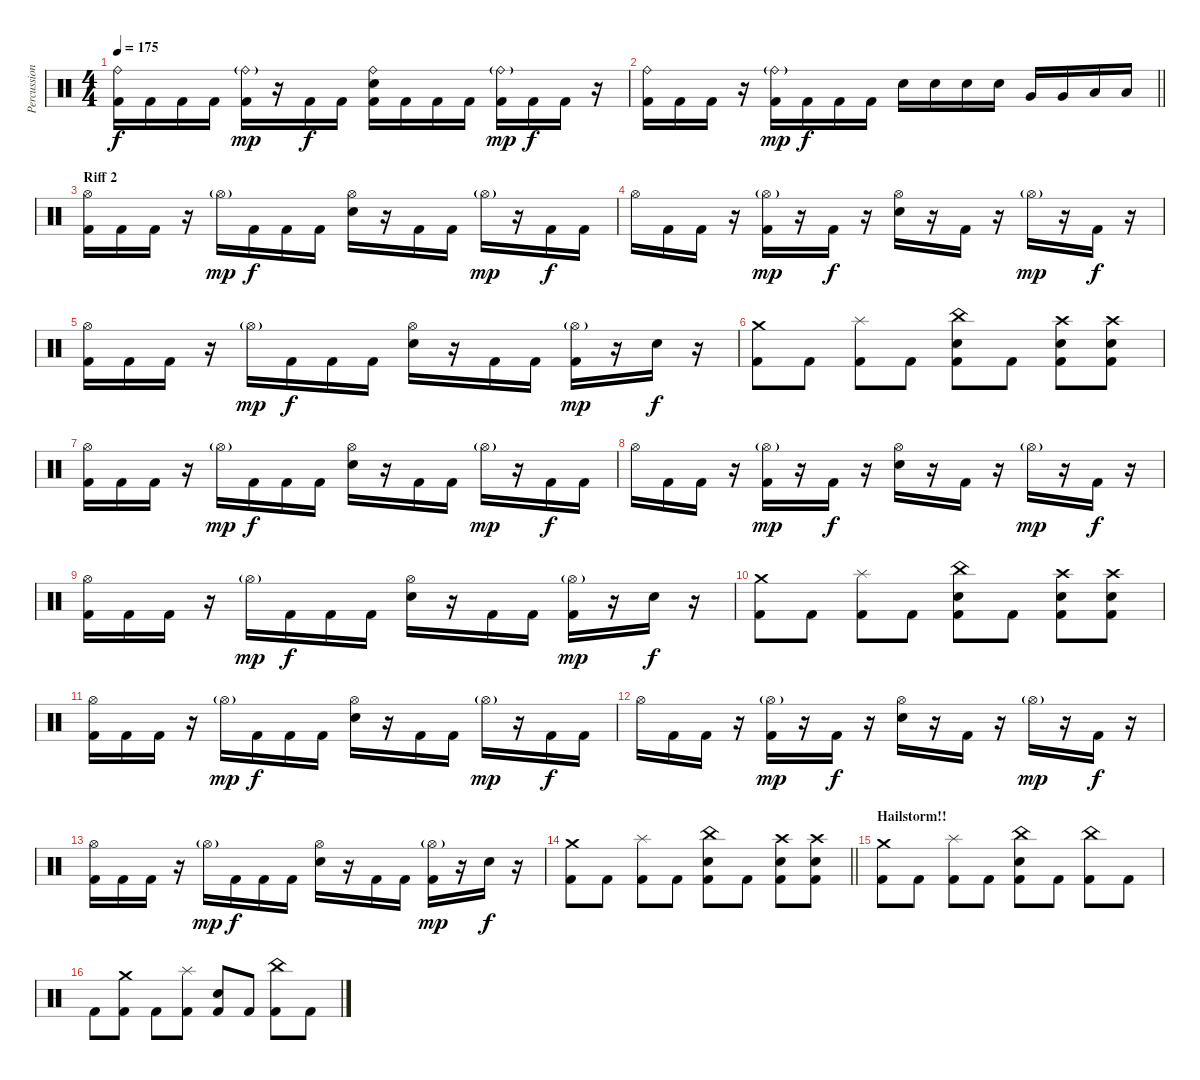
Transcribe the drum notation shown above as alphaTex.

\track ("Percussion" "Percussion") {instrument percussion}
\staff {score}
\articulation defaults
\ts (4 4)
\tempo 175
\clef neutral
\ks c
("Ride (bell)" "Kick (hit) 2").16{dy f} "Kick (hit) 2".16 "Kick (hit) 2".16 "Kick (hit) 2".16 ("Ride (bell)"{g} "Kick (hit) 2").16{dy mp} r.16 "Kick (hit) 2".16{dy f} "Kick (hit) 2".16 ("Ride (bell)" "Electric Snare (hit)" "Kick (hit) 2").16 "Kick (hit) 2".16 "Kick (hit) 2".16 "Kick (hit) 2".16 ("Ride (bell)"{g} "Kick (hit) 2").16{dy mp} "Kick (hit) 2".16{dy f} "Kick (hit) 2".16 r.16 |
\barLineRight lightlight
("Ride (bell)" "Kick (hit) 2").16 "Kick (hit) 2".16 "Kick (hit) 2".16 r.16 ("Ride (bell)"{g} "Kick (hit) 2").16{dy mp} "Kick (hit) 2".16{dy f} "Kick (hit) 2".16 "Kick (hit) 2".16 "Electric Snare (hit)".16 "Electric Snare (hit)".16 "Electric Snare (hit)".16 "Electric Snare (hit)".16 "Very Low Tom (hit)".16 "Very Low Tom (hit)".16 "Low Floor Tom (hit)".16 "Low Floor Tom (hit)".16 |
\section ("" "Riff 2")
("Hi-Hat (open)" "Kick (hit) 2").16 "Kick (hit) 2".16 "Kick (hit) 2".16 r.16 "Hi-Hat (open)"{g}.16{dy mp} "Kick (hit) 2".16{dy f} "Kick (hit) 2".16 "Kick (hit) 2".16 ("Hi-Hat (open)" "Electric Snare (hit)").16 r.16 "Kick (hit) 2".16 "Kick (hit) 2".16 "Hi-Hat (open)"{g}.16{dy mp} r.16 "Kick (hit) 2".16{dy f} "Kick (hit) 2".16 |
"Hi-Hat (open)".16 "Kick (hit) 2".16 "Kick (hit) 2".16 r.16 ("Hi-Hat (open)"{g} "Kick (hit) 2").16{dy mp} r.16 "Kick (hit) 2".16{dy f} r.16 ("Hi-Hat (open)" "Electric Snare (hit)").16 r.16 "Kick (hit) 2".16 r.16 "Hi-Hat (open)"{g}.16{dy mp} r.16 "Kick (hit) 2".16{dy f} r.16 |
("Hi-Hat (open)" "Kick (hit) 2").16 "Kick (hit) 2".16 "Kick (hit) 2".16 r.16 "Hi-Hat (open)"{g}.16{dy mp} "Kick (hit) 2".16{dy f} "Kick (hit) 2".16 "Kick (hit) 2".16 ("Hi-Hat (open)" "Electric Snare (hit)").16 r.16 "Kick (hit) 2".16 "Kick (hit) 2".16 ("Hi-Hat (open)"{g} "Kick (hit) 2").16{dy mp} r.16 "Electric Snare (hit)".16{dy f} r.16 |
("Crash medium (hit)" "Kick (hit) 2").8 "Kick (hit) 2".8 ("Splash (hit)" "Kick (hit) 2").8 "Kick (hit) 2".8 ("China (hit)" "Electric Snare (hit)" "Kick (hit) 2").8 "Kick (hit) 2".8 ("Crash high (hit)" "Electric Snare (hit)" "Kick (hit) 2").8 ("Crash high (hit)" "Electric Snare (hit)" "Kick (hit) 2").8 |
("Hi-Hat (open)" "Kick (hit) 2").16 "Kick (hit) 2".16 "Kick (hit) 2".16 r.16 "Hi-Hat (open)"{g}.16{dy mp} "Kick (hit) 2".16{dy f} "Kick (hit) 2".16 "Kick (hit) 2".16 ("Hi-Hat (open)" "Electric Snare (hit)").16 r.16 "Kick (hit) 2".16 "Kick (hit) 2".16 "Hi-Hat (open)"{g}.16{dy mp} r.16 "Kick (hit) 2".16{dy f} "Kick (hit) 2".16 |
"Hi-Hat (open)".16 "Kick (hit) 2".16 "Kick (hit) 2".16 r.16 ("Hi-Hat (open)"{g} "Kick (hit) 2").16{dy mp} r.16 "Kick (hit) 2".16{dy f} r.16 ("Hi-Hat (open)" "Electric Snare (hit)").16 r.16 "Kick (hit) 2".16 r.16 "Hi-Hat (open)"{g}.16{dy mp} r.16 "Kick (hit) 2".16{dy f} r.16 |
("Hi-Hat (open)" "Kick (hit) 2").16 "Kick (hit) 2".16 "Kick (hit) 2".16 r.16 "Hi-Hat (open)"{g}.16{dy mp} "Kick (hit) 2".16{dy f} "Kick (hit) 2".16 "Kick (hit) 2".16 ("Hi-Hat (open)" "Electric Snare (hit)").16 r.16 "Kick (hit) 2".16 "Kick (hit) 2".16 ("Hi-Hat (open)"{g} "Kick (hit) 2").16{dy mp} r.16 "Electric Snare (hit)".16{dy f} r.16 |
("Crash medium (hit)" "Kick (hit) 2").8 "Kick (hit) 2".8 ("Splash (hit)" "Kick (hit) 2").8 "Kick (hit) 2".8 ("China (hit)" "Electric Snare (hit)" "Kick (hit) 2").8 "Kick (hit) 2".8 ("Crash high (hit)" "Electric Snare (hit)" "Kick (hit) 2").8 ("Crash high (hit)" "Electric Snare (hit)" "Kick (hit) 2").8 |
("Hi-Hat (open)" "Kick (hit) 2").16 "Kick (hit) 2".16 "Kick (hit) 2".16 r.16 "Hi-Hat (open)"{g}.16{dy mp} "Kick (hit) 2".16{dy f} "Kick (hit) 2".16 "Kick (hit) 2".16 ("Hi-Hat (open)" "Electric Snare (hit)").16 r.16 "Kick (hit) 2".16 "Kick (hit) 2".16 "Hi-Hat (open)"{g}.16{dy mp} r.16 "Kick (hit) 2".16{dy f} "Kick (hit) 2".16 |
"Hi-Hat (open)".16 "Kick (hit) 2".16 "Kick (hit) 2".16 r.16 ("Hi-Hat (open)"{g} "Kick (hit) 2").16{dy mp} r.16 "Kick (hit) 2".16{dy f} r.16 ("Hi-Hat (open)" "Electric Snare (hit)").16 r.16 "Kick (hit) 2".16 r.16 "Hi-Hat (open)"{g}.16{dy mp} r.16 "Kick (hit) 2".16{dy f} r.16 |
("Hi-Hat (open)" "Kick (hit) 2").16 "Kick (hit) 2".16 "Kick (hit) 2".16 r.16 "Hi-Hat (open)"{g}.16{dy mp} "Kick (hit) 2".16{dy f} "Kick (hit) 2".16 "Kick (hit) 2".16 ("Hi-Hat (open)" "Electric Snare (hit)").16 r.16 "Kick (hit) 2".16 "Kick (hit) 2".16 ("Hi-Hat (open)"{g} "Kick (hit) 2").16{dy mp} r.16 "Electric Snare (hit)".16{dy f} r.16 |
\barLineRight lightlight
("Crash medium (hit)" "Kick (hit) 2").8 "Kick (hit) 2".8 ("Splash (hit)" "Kick (hit) 2").8 "Kick (hit) 2".8 ("China (hit)" "Electric Snare (hit)" "Kick (hit) 2").8 "Kick (hit) 2".8 ("Crash high (hit)" "Electric Snare (hit)" "Kick (hit) 2").8 ("Crash high (hit)" "Electric Snare (hit)" "Kick (hit) 2").8 |
\section ("" "Hailstorm!!")
("Crash medium (hit)" "Kick (hit) 2").8 "Kick (hit) 2".8 ("Splash (hit)" "Kick (hit) 2").8 "Kick (hit) 2".8 ("China (hit)" "Electric Snare (hit)" "Kick (hit) 2").8 "Kick (hit) 2".8 ("China (hit)" "Kick (hit) 2").8 "Kick (hit) 2".8 |
"Kick (hit) 2".8 ("Crash medium (hit)" "Kick (hit) 2").8 "Kick (hit) 2".8 ("Splash (hit)" "Kick (hit) 2").8 ("Electric Snare (hit)" "Kick (hit) 2").8 "Kick (hit) 2".8 ("China (hit)" "Kick (hit) 2").8 "Kick (hit) 2".8
